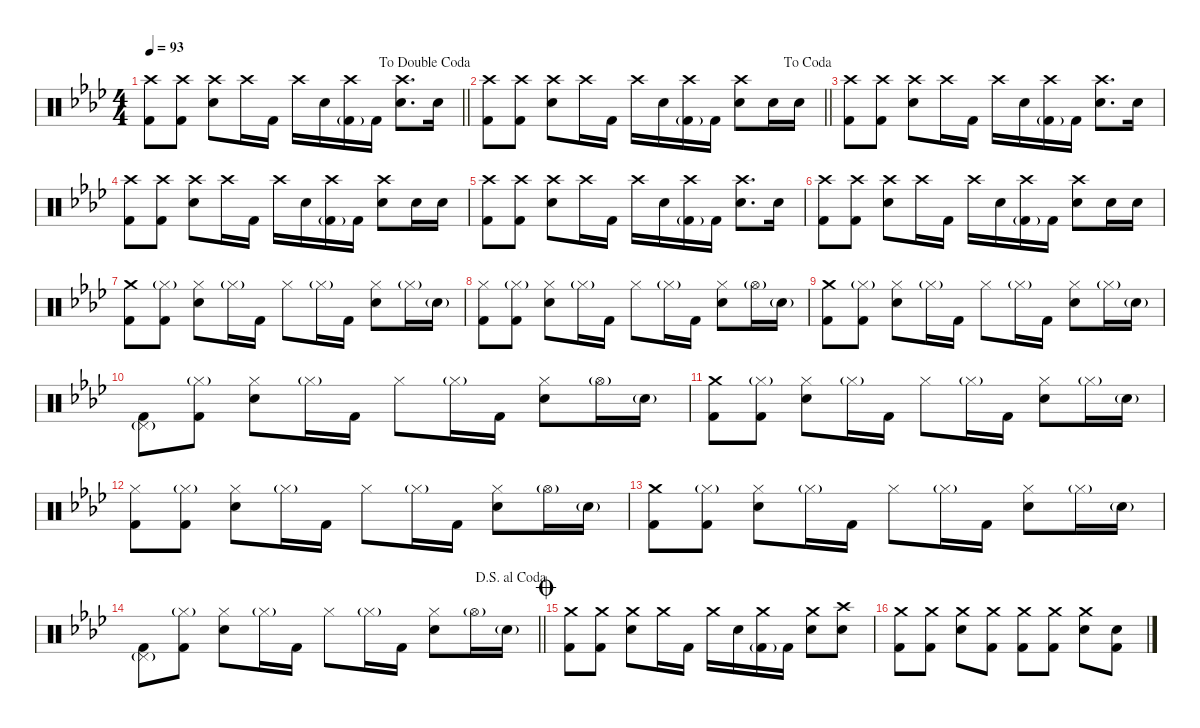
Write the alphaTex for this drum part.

\defaultSystemsLayout 4
\hideDynamics
\bracketExtendMode nobrackets
\singleTrackTrackNamePolicy hidden
\multiTrackTrackNamePolicy hidden
\firstSystemTrackNameMode fullname
\firstSystemTrackNameOrientation horizontal
\otherSystemsTrackNameOrientation horizontal
\track ("Drums" "drm.") {instrument percussion}
\staff {score}
\articulation defaults
\ts (4 4)
\jump dadoublecoda
\tempo 93
\clef neutral
\barLineRight lightlight
\ks ab
("Crash high (hit)"{acc forcenatural} "Kick (hit) 2"{acc forcenatural}).8{dy f beam Down} ("Crash high (hit)"{acc forcenatural} "Kick (hit) 2"{acc forcenatural}).8{beam Down} ("Crash high (hit)"{acc forcenatural} "Snare (hit) 2"{acc forcenatural}).8{beam Down} "Crash high (hit)"{acc forcenatural}.16{beam Down} "Kick (hit) 2"{acc forcenatural}.16{beam Down} "Crash high (hit)"{acc forcenatural}.16{beam Down} "Snare (hit) 2"{acc forcenatural}.16{beam Down} ("Crash high (hit)"{acc forcenatural} "Kick (hit) 2"{g acc forcenatural}).16{beam Down} "Kick (hit) 2"{acc forcenatural}.16{beam Down} ("Crash high (hit)"{acc forcenatural} "Snare (hit) 2"{acc forcenatural}).8{d beam Down} "Snare (hit) 2"{acc forcenatural}.16{beam Down} |
\jump dacoda
\barLineRight lightlight
("Crash high (hit)"{acc forcenatural} "Kick (hit) 2"{acc forcenatural}).8{beam Down} ("Crash high (hit)"{acc forcenatural} "Kick (hit) 2"{acc forcenatural}).8{beam Down} ("Crash high (hit)"{acc forcenatural} "Snare (hit) 2"{acc forcenatural}).8{beam Down} "Crash high (hit)"{acc forcenatural}.16{beam Down} "Kick (hit) 2"{acc forcenatural}.16{beam Down} "Crash high (hit)"{acc forcenatural}.16{beam Down} "Snare (hit) 2"{acc forcenatural}.16{beam Down} ("Crash high (hit)"{acc forcenatural} "Kick (hit) 2"{g acc forcenatural}).16{beam Down} "Kick (hit) 2"{acc forcenatural}.16{beam Down} ("Crash high (hit)"{acc forcenatural} "Snare (hit) 2"{acc forcenatural}).8{beam Down} "Snare (hit) 2"{acc forcenatural}.16{beam Down} "Snare (hit) 2"{acc forcenatural}.16{beam Down} |
("Crash high (hit)"{acc forcenatural} "Kick (hit) 2"{acc forcenatural}).8{beam Down} ("Crash high (hit)"{acc forcenatural} "Kick (hit) 2"{acc forcenatural}).8{beam Down} ("Crash high (hit)"{acc forcenatural} "Snare (hit) 2"{acc forcenatural}).8{beam Down} "Crash high (hit)"{acc forcenatural}.16{beam Down} "Kick (hit) 2"{acc forcenatural}.16{beam Down} "Crash high (hit)"{acc forcenatural}.16{beam Down} "Snare (hit) 2"{acc forcenatural}.16{beam Down} ("Crash high (hit)"{acc forcenatural} "Kick (hit) 2"{g acc forcenatural}).16{beam Down} "Kick (hit) 2"{acc forcenatural}.16{beam Down} ("Crash high (hit)"{acc forcenatural} "Snare (hit) 2"{acc forcenatural}).8{d beam Down} "Snare (hit) 2"{acc forcenatural}.16{beam Down} |
("Crash high (hit)"{acc forcenatural} "Kick (hit) 2"{acc forcenatural}).8{beam Down} ("Crash high (hit)"{acc forcenatural} "Kick (hit) 2"{acc forcenatural}).8{beam Down} ("Crash high (hit)"{acc forcenatural} "Snare (hit) 2"{acc forcenatural}).8{beam Down} "Crash high (hit)"{acc forcenatural}.16{beam Down} "Kick (hit) 2"{acc forcenatural}.16{beam Down} "Crash high (hit)"{acc forcenatural}.16{beam Down} "Snare (hit) 2"{acc forcenatural}.16{beam Down} ("Crash high (hit)"{acc forcenatural} "Kick (hit) 2"{g acc forcenatural}).16{beam Down} "Kick (hit) 2"{acc forcenatural}.16{beam Down} ("Crash high (hit)"{acc forcenatural} "Snare (hit) 2"{acc forcenatural}).8{beam Down} "Snare (hit) 2"{acc forcenatural}.16{beam Down} "Snare (hit) 2"{acc forcenatural}.16{beam Down} |
("Crash high (hit)"{acc forcenatural} "Kick (hit) 2"{acc forcenatural}).8{beam Down} ("Crash high (hit)"{acc forcenatural} "Kick (hit) 2"{acc forcenatural}).8{beam Down} ("Crash high (hit)"{acc forcenatural} "Snare (hit) 2"{acc forcenatural}).8{beam Down} "Crash high (hit)"{acc forcenatural}.16{beam Down} "Kick (hit) 2"{acc forcenatural}.16{beam Down} "Crash high (hit)"{acc forcenatural}.16{beam Down} "Snare (hit) 2"{acc forcenatural}.16{beam Down} ("Crash high (hit)"{acc forcenatural} "Kick (hit) 2"{g acc forcenatural}).16{beam Down} "Kick (hit) 2"{acc forcenatural}.16{beam Down} ("Crash high (hit)"{acc forcenatural} "Snare (hit) 2"{acc forcenatural}).8{d beam Down} "Snare (hit) 2"{acc forcenatural}.16{beam Down} |
("Crash high (hit)"{acc forcenatural} "Kick (hit) 2"{acc forcenatural}).8{beam Down} ("Crash high (hit)"{acc forcenatural} "Kick (hit) 2"{acc forcenatural}).8{beam Down} ("Crash high (hit)"{acc forcenatural} "Snare (hit) 2"{acc forcenatural}).8{beam Down} "Crash high (hit)"{acc forcenatural}.16{beam Down} "Kick (hit) 2"{acc forcenatural}.16{beam Down} "Crash high (hit)"{acc forcenatural}.16{beam Down} "Snare (hit) 2"{acc forcenatural}.16{beam Down} ("Crash high (hit)"{acc forcenatural} "Kick (hit) 2"{g acc forcenatural}).16{beam Down} "Kick (hit) 2"{acc forcenatural}.16{beam Down} ("Crash high (hit)"{acc forcenatural} "Snare (hit) 2"{acc forcenatural}).8{beam Down} "Snare (hit) 2"{acc forcenatural}.16{beam Down} "Snare (hit) 2"{acc forcenatural}.16{beam Down} |
("Crash medium (hit)"{acc forcenatural} "Kick (hit) 2"{acc forcenatural}).8{beam Down} ("Hi-Hat (closed)"{g acc forcenatural} "Kick (hit) 2"{acc forcenatural}).8{beam Down} ("Hi-Hat (closed)"{acc forcenatural} "Snare (hit) 2"{acc forcenatural}).8{beam Down} "Hi-Hat (closed)"{g acc forcenatural}.16{dy mf beam Down} "Kick (hit) 2"{acc forcenatural}.16{dy f beam Down} "Hi-Hat (closed)"{acc forcenatural}.8{beam Down} "Hi-Hat (closed)"{g acc forcenatural}.16{dy mf beam Down} "Kick (hit) 2"{acc forcenatural}.16{dy f beam Down} ("Hi-Hat (closed)"{acc forcenatural} "Snare (hit) 2"{acc forcenatural}).8{beam Down} "Hi-Hat (closed)"{g acc forcenatural}.16{dy mf beam Down} "Snare (hit) 2"{g acc forcenatural}.16{beam Down} |
("Hi-Hat (closed)"{acc forcenatural} "Kick (hit) 2"{acc forcenatural}).8{dy f beam Down} ("Hi-Hat (closed)"{g acc forcenatural} "Kick (hit) 2"{acc forcenatural}).8{beam Down} ("Hi-Hat (closed)"{acc forcenatural} "Snare (hit) 2"{acc forcenatural}).8{beam Down} "Hi-Hat (closed)"{g acc forcenatural}.16{dy mf beam Down} "Kick (hit) 2"{acc forcenatural}.16{dy f beam Down} "Hi-Hat (closed)"{acc forcenatural}.8{beam Down} "Hi-Hat (closed)"{g acc forcenatural}.16{dy mf beam Down} "Kick (hit) 2"{acc forcenatural}.16{dy f beam Down} ("Hi-Hat (closed)"{acc forcenatural} "Snare (hit) 2"{acc forcenatural}).8{beam Down} "Hi-Hat (open)"{g acc forcenatural}.16{dy mf beam Down} "Snare (hit) 2"{g acc forcenatural}.16{beam Down} |
("Crash medium (hit)"{acc forcenatural} "Kick (hit) 2"{acc forcenatural}).8{dy f beam Down} ("Hi-Hat (closed)"{g acc forcenatural} "Kick (hit) 2"{acc forcenatural}).8{beam Down} ("Hi-Hat (closed)"{acc forcenatural} "Snare (hit) 2"{acc forcenatural}).8{beam Down} "Hi-Hat (closed)"{g acc forcenatural}.16{dy mf beam Down} "Kick (hit) 2"{acc forcenatural}.16{dy f beam Down} "Hi-Hat (closed)"{acc forcenatural}.8{beam Down} "Hi-Hat (closed)"{g acc forcenatural}.16{dy mf beam Down} "Kick (hit) 2"{acc forcenatural}.16{dy f beam Down} ("Hi-Hat (closed)"{acc forcenatural} "Snare (hit) 2"{acc forcenatural}).8{beam Down} "Hi-Hat (closed)"{g acc forcenatural}.16{dy mf beam Down} "Snare (hit) 2"{g acc forcenatural}.16{beam Down} |
("Pedal Hi-Hat (hit)"{g acc forcenatural} "Kick (hit) 2"{acc forcenatural}).8{dy f beam Down} ("Hi-Hat (closed)"{g acc forcenatural} "Kick (hit) 2"{acc forcenatural}).8{beam Down} ("Hi-Hat (closed)"{acc forcenatural} "Snare (hit) 2"{acc forcenatural}).8{beam Down} "Hi-Hat (closed)"{g acc forcenatural}.16{dy mf beam Down} "Kick (hit) 2"{acc forcenatural}.16{dy f beam Down} "Hi-Hat (closed)"{acc forcenatural}.8{beam Down} "Hi-Hat (closed)"{g acc forcenatural}.16{dy mf beam Down} "Kick (hit) 2"{acc forcenatural}.16{dy f beam Down} ("Hi-Hat (closed)"{acc forcenatural} "Snare (hit) 2"{acc forcenatural}).8{beam Down} "Hi-Hat (open)"{g acc forcenatural}.16{dy mf beam Down} "Snare (hit) 2"{g acc forcenatural}.16{beam Down} |
("Crash medium (hit)"{acc forcenatural} "Kick (hit) 2"{acc forcenatural}).8{dy f beam Down} ("Hi-Hat (closed)"{g acc forcenatural} "Kick (hit) 2"{acc forcenatural}).8{beam Down} ("Hi-Hat (closed)"{acc forcenatural} "Snare (hit) 2"{acc forcenatural}).8{beam Down} "Hi-Hat (closed)"{g acc forcenatural}.16{dy mf beam Down} "Kick (hit) 2"{acc forcenatural}.16{dy f beam Down} "Hi-Hat (closed)"{acc forcenatural}.8{beam Down} "Hi-Hat (closed)"{g acc forcenatural}.16{dy mf beam Down} "Kick (hit) 2"{acc forcenatural}.16{dy f beam Down} ("Hi-Hat (closed)"{acc forcenatural} "Snare (hit) 2"{acc forcenatural}).8{beam Down} "Hi-Hat (closed)"{g acc forcenatural}.16{dy mf beam Down} "Snare (hit) 2"{g acc forcenatural}.16{beam Down} |
("Hi-Hat (closed)"{acc forcenatural} "Kick (hit) 2"{acc forcenatural}).8{dy f beam Down} ("Hi-Hat (closed)"{g acc forcenatural} "Kick (hit) 2"{acc forcenatural}).8{beam Down} ("Hi-Hat (closed)"{acc forcenatural} "Snare (hit) 2"{acc forcenatural}).8{beam Down} "Hi-Hat (closed)"{g acc forcenatural}.16{dy mf beam Down} "Kick (hit) 2"{acc forcenatural}.16{dy f beam Down} "Hi-Hat (closed)"{acc forcenatural}.8{beam Down} "Hi-Hat (closed)"{g acc forcenatural}.16{dy mf beam Down} "Kick (hit) 2"{acc forcenatural}.16{dy f beam Down} ("Hi-Hat (closed)"{acc forcenatural} "Snare (hit) 2"{acc forcenatural}).8{beam Down} "Hi-Hat (open)"{g acc forcenatural}.16{dy mf beam Down} "Snare (hit) 2"{g acc forcenatural}.16{beam Down} |
("Crash medium (hit)"{acc forcenatural} "Kick (hit) 2"{acc forcenatural}).8{dy f beam Down} ("Hi-Hat (closed)"{g acc forcenatural} "Kick (hit) 2"{acc forcenatural}).8{beam Down} ("Hi-Hat (closed)"{acc forcenatural} "Snare (hit) 2"{acc forcenatural}).8{beam Down} "Hi-Hat (closed)"{g acc forcenatural}.16{dy mf beam Down} "Kick (hit) 2"{acc forcenatural}.16{dy f beam Down} "Hi-Hat (closed)"{acc forcenatural}.8{beam Down} "Hi-Hat (closed)"{g acc forcenatural}.16{dy mf beam Down} "Kick (hit) 2"{acc forcenatural}.16{dy f beam Down} ("Hi-Hat (closed)"{acc forcenatural} "Snare (hit) 2"{acc forcenatural}).8{beam Down} "Hi-Hat (closed)"{g acc forcenatural}.16{dy mf beam Down} "Snare (hit) 2"{g acc forcenatural}.16{beam Down} |
\jump dalsegnoalcoda
\barLineRight lightlight
("Pedal Hi-Hat (hit)"{g acc forcenatural} "Kick (hit) 2"{acc forcenatural}).8{dy f beam Down} ("Hi-Hat (closed)"{g acc forcenatural} "Kick (hit) 2"{acc forcenatural}).8{beam Down} ("Hi-Hat (closed)"{acc forcenatural} "Snare (hit) 2"{acc forcenatural}).8{beam Down} "Hi-Hat (closed)"{g acc forcenatural}.16{dy mf beam Down} "Kick (hit) 2"{acc forcenatural}.16{dy f beam Down} "Hi-Hat (closed)"{acc forcenatural}.8{beam Down} "Hi-Hat (closed)"{g acc forcenatural}.16{dy mf beam Down} "Kick (hit) 2"{acc forcenatural}.16{dy f beam Down} ("Hi-Hat (closed)"{acc forcenatural} "Snare (hit) 2"{acc forcenatural}).8{beam Down} "Hi-Hat (open)"{g acc forcenatural}.16{dy mf beam Down} "Snare (hit) 2"{g acc forcenatural}.16{beam Down} |
\jump coda
("Crash medium (hit)"{acc forcenatural} "Kick (hit) 2"{acc forcenatural}).8{dy f beam Down} ("Crash medium (hit)"{acc forcenatural} "Kick (hit) 2"{acc forcenatural}).8{beam Down} ("Crash medium (hit)"{acc forcenatural} "Snare (hit) 2"{acc forcenatural}).8{beam Down} "Crash medium (hit)"{acc forcenatural}.16{beam Down} "Kick (hit) 2"{acc forcenatural}.16{beam Down} "Crash medium (hit)"{acc forcenatural}.16{beam Down} "Snare (hit) 2"{acc forcenatural}.16{beam Down} ("Crash medium (hit)"{acc forcenatural} "Kick (hit) 2"{g acc forcenatural}).16{beam Down} "Kick (hit) 2"{acc forcenatural}.16{beam Down} ("Crash medium (hit)"{acc forcenatural} "Snare (hit) 2"{acc forcenatural}).8{beam Down} ("Crash high (hit)"{acc forcenatural} "Snare (hit) 2"{acc forcenatural}).8{beam Down} |
("Crash medium (hit)"{acc forcenatural} "Kick (hit) 2"{acc forcenatural}).8{beam Down} ("Crash medium (hit)"{acc forcenatural} "Kick (hit) 2"{acc forcenatural}).8{beam Down} ("Crash medium (hit)"{acc forcenatural} "Snare (hit) 2"{acc forcenatural}).8{beam Down} ("Crash medium (hit)"{acc forcenatural} "Kick (hit) 2"{acc forcenatural}).8{beam Down} ("Crash medium (hit)"{acc forcenatural} "Kick (hit) 2"{acc forcenatural}).8{beam Down} ("Crash medium (hit)"{acc forcenatural} "Kick (hit) 2"{acc forcenatural}).8{beam Down} ("Crash medium (hit)"{acc forcenatural} "Snare (hit) 2"{acc forcenatural}).8{beam Down} ("Snare (hit) 2"{acc forcenatural} "Kick (hit) 2"{acc forcenatural}).8{beam Down}
